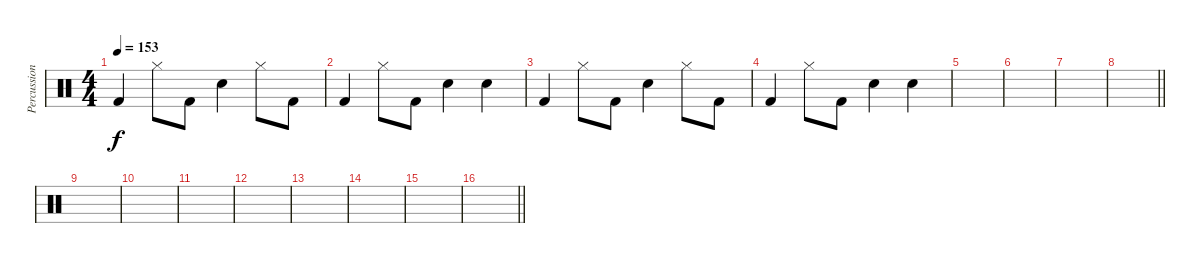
\track ("Percussion" "Percussion") {instrument percussion}
\staff {score}
\articulation defaults
\ts (4 4)
\tempo 153
\clef neutral
\ks c "Kick (hit) 2".4{dy f} "Hi-Hat (closed)".8 "Kick (hit) 2".8 "Snare (hit) 2".4 "Hi-Hat (closed)".8 "Kick (hit) 2".8
|
"Kick (hit) 2".4 "Hi-Hat (closed)".8 "Kick (hit) 2".8 "Snare (hit) 2".4 "Snare (hit) 2".4 |
"Kick (hit) 2".4 "Hi-Hat (closed)".8 "Kick (hit) 2".8 "Snare (hit) 2".4 "Hi-Hat (closed)".8 "Kick (hit) 2".8 |
"Kick (hit) 2".4 "Hi-Hat (closed)".8 "Kick (hit) 2".8 "Snare (hit) 2".4 "Snare (hit) 2".4 |
|
|
|
\barLineRight lightlight
|
|
|
|
|
|
|
|
\barLineRight lightlight
